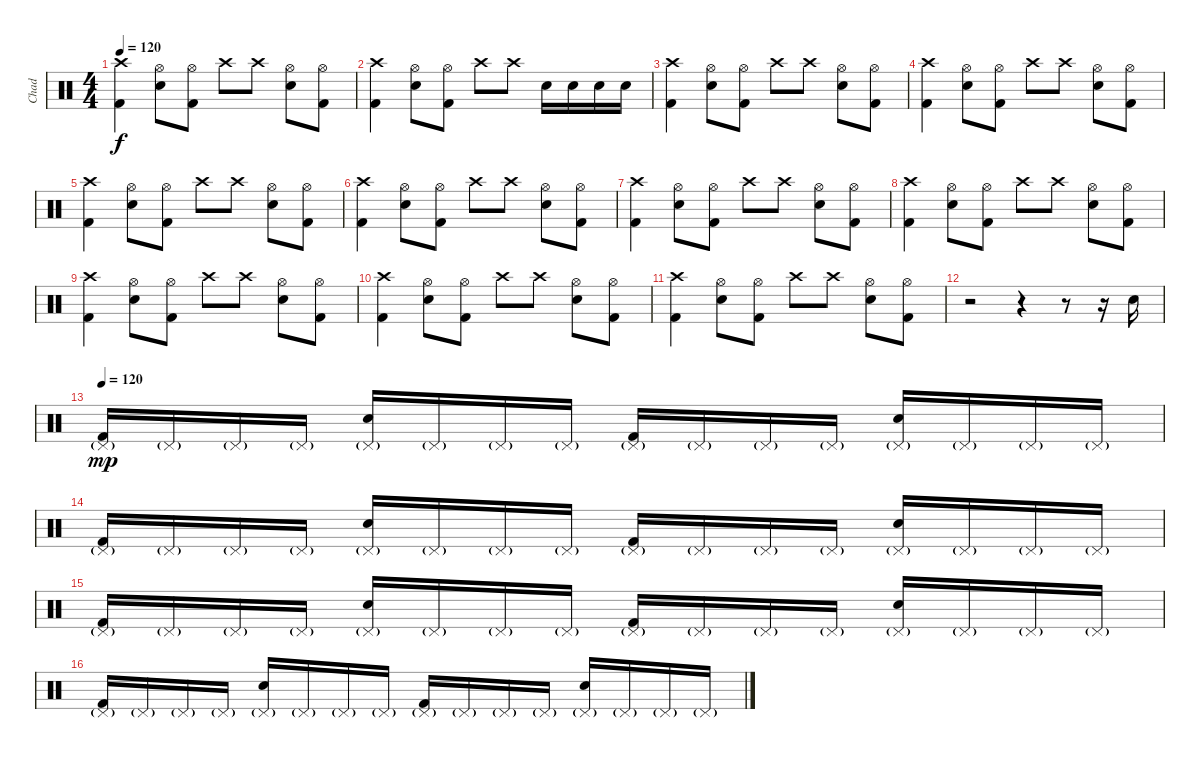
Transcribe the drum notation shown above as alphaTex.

\track ("Chad" "Chad") {instrument percussion}
\staff {score}
\articulation defaults
\ts (4 4)
\tempo 120
\clef neutral
\ks c
("Kick (hit) 2" "Crash high (hit)").4{dy f} ("Electric Snare (hit)" "Hi-Hat (open)").8 ("Kick (hit) 2" "Hi-Hat (open)").8 "Crash high (hit)".8 "Crash high (hit)".8 ("Electric Snare (hit)" "Hi-Hat (open)").8 ("Kick (hit) 2" "Hi-Hat (open)").8 |
("Kick (hit) 2" "Crash high (hit)").4 ("Electric Snare (hit)" "Hi-Hat (open)").8 ("Kick (hit) 2" "Hi-Hat (open)").8 "Crash high (hit)".8 "Crash high (hit)".8 "Electric Snare (hit)".16 "Electric Snare (hit)".16 "Electric Snare (hit)".16 "Electric Snare (hit)".16 |
("Kick (hit) 2" "Crash high (hit)").4 ("Electric Snare (hit)" "Hi-Hat (open)").8 ("Kick (hit) 2" "Hi-Hat (open)").8 "Crash high (hit)".8 "Crash high (hit)".8 ("Electric Snare (hit)" "Hi-Hat (open)").8 ("Kick (hit) 2" "Hi-Hat (open)").8 |
("Kick (hit) 2" "Crash high (hit)").4 ("Electric Snare (hit)" "Hi-Hat (open)").8 ("Kick (hit) 2" "Hi-Hat (open)").8 "Crash high (hit)".8 "Crash high (hit)".8 ("Electric Snare (hit)" "Hi-Hat (open)").8 ("Kick (hit) 2" "Hi-Hat (open)").8 |
("Kick (hit) 2" "Crash high (hit)").4 ("Electric Snare (hit)" "Hi-Hat (open)").8 ("Kick (hit) 2" "Hi-Hat (open)").8 "Crash high (hit)".8 "Crash high (hit)".8 ("Electric Snare (hit)" "Hi-Hat (open)").8 ("Kick (hit) 2" "Hi-Hat (open)").8 |
("Kick (hit) 2" "Crash high (hit)").4 ("Electric Snare (hit)" "Hi-Hat (open)").8 ("Kick (hit) 2" "Hi-Hat (open)").8 "Crash high (hit)".8 "Crash high (hit)".8 ("Electric Snare (hit)" "Hi-Hat (open)").8 ("Kick (hit) 2" "Hi-Hat (open)").8 |
("Kick (hit) 2" "Crash high (hit)").4 ("Electric Snare (hit)" "Hi-Hat (open)").8 ("Kick (hit) 2" "Hi-Hat (open)").8 "Crash high (hit)".8 "Crash high (hit)".8 ("Electric Snare (hit)" "Hi-Hat (open)").8 ("Kick (hit) 2" "Hi-Hat (open)").8 |
("Kick (hit) 2" "Crash high (hit)").4 ("Electric Snare (hit)" "Hi-Hat (open)").8 ("Kick (hit) 2" "Hi-Hat (open)").8 "Crash high (hit)".8 "Crash high (hit)".8 ("Electric Snare (hit)" "Hi-Hat (open)").8 ("Kick (hit) 2" "Hi-Hat (open)").8 |
("Kick (hit) 2" "Crash high (hit)").4 ("Electric Snare (hit)" "Hi-Hat (open)").8 ("Kick (hit) 2" "Hi-Hat (open)").8 "Crash high (hit)".8 "Crash high (hit)".8 ("Electric Snare (hit)" "Hi-Hat (open)").8 ("Kick (hit) 2" "Hi-Hat (open)").8 |
("Kick (hit) 2" "Crash high (hit)").4 ("Electric Snare (hit)" "Hi-Hat (open)").8 ("Kick (hit) 2" "Hi-Hat (open)").8 "Crash high (hit)".8 "Crash high (hit)".8 ("Electric Snare (hit)" "Hi-Hat (open)").8 ("Kick (hit) 2" "Hi-Hat (open)").8 |
("Kick (hit) 2" "Crash high (hit)").4 ("Electric Snare (hit)" "Hi-Hat (open)").8 ("Kick (hit) 2" "Hi-Hat (open)").8 "Crash high (hit)".8 "Crash high (hit)".8 ("Electric Snare (hit)" "Hi-Hat (open)").8 ("Kick (hit) 2" "Hi-Hat (open)").8 |
r.2 r.4 r.8 r.16 "Electric Snare (hit)".16 |
\tempo 120
("Kick (hit) 2" "Pedal Hi-Hat (hit)"{g}).16{dy mp} "Pedal Hi-Hat (hit)"{g}.16 "Pedal Hi-Hat (hit)"{g}.16 "Pedal Hi-Hat (hit)"{g}.16 ("Electric Snare (hit)" "Pedal Hi-Hat (hit)"{g}).16 "Pedal Hi-Hat (hit)"{g}.16 "Pedal Hi-Hat (hit)"{g}.16 "Pedal Hi-Hat (hit)"{g}.16 ("Kick (hit) 2" "Pedal Hi-Hat (hit)"{g}).16 "Pedal Hi-Hat (hit)"{g}.16 "Pedal Hi-Hat (hit)"{g}.16 "Pedal Hi-Hat (hit)"{g}.16 ("Electric Snare (hit)" "Pedal Hi-Hat (hit)"{g}).16 "Pedal Hi-Hat (hit)"{g}.16 "Pedal Hi-Hat (hit)"{g}.16 "Pedal Hi-Hat (hit)"{g}.16 |
("Kick (hit) 2" "Pedal Hi-Hat (hit)"{g}).16 "Pedal Hi-Hat (hit)"{g}.16 "Pedal Hi-Hat (hit)"{g}.16 "Pedal Hi-Hat (hit)"{g}.16 ("Electric Snare (hit)" "Pedal Hi-Hat (hit)"{g}).16 "Pedal Hi-Hat (hit)"{g}.16 "Pedal Hi-Hat (hit)"{g}.16 "Pedal Hi-Hat (hit)"{g}.16 ("Kick (hit) 2" "Pedal Hi-Hat (hit)"{g}).16 "Pedal Hi-Hat (hit)"{g}.16 "Pedal Hi-Hat (hit)"{g}.16 "Pedal Hi-Hat (hit)"{g}.16 ("Electric Snare (hit)" "Pedal Hi-Hat (hit)"{g}).16 "Pedal Hi-Hat (hit)"{g}.16 "Pedal Hi-Hat (hit)"{g}.16 "Pedal Hi-Hat (hit)"{g}.16 |
("Kick (hit) 2" "Pedal Hi-Hat (hit)"{g}).16 "Pedal Hi-Hat (hit)"{g}.16 "Pedal Hi-Hat (hit)"{g}.16 "Pedal Hi-Hat (hit)"{g}.16 ("Electric Snare (hit)" "Pedal Hi-Hat (hit)"{g}).16 "Pedal Hi-Hat (hit)"{g}.16 "Pedal Hi-Hat (hit)"{g}.16 "Pedal Hi-Hat (hit)"{g}.16 ("Kick (hit) 2" "Pedal Hi-Hat (hit)"{g}).16 "Pedal Hi-Hat (hit)"{g}.16 "Pedal Hi-Hat (hit)"{g}.16 "Pedal Hi-Hat (hit)"{g}.16 ("Electric Snare (hit)" "Pedal Hi-Hat (hit)"{g}).16 "Pedal Hi-Hat (hit)"{g}.16 "Pedal Hi-Hat (hit)"{g}.16 "Pedal Hi-Hat (hit)"{g}.16 |
("Kick (hit) 2" "Pedal Hi-Hat (hit)"{g}).16 "Pedal Hi-Hat (hit)"{g}.16 "Pedal Hi-Hat (hit)"{g}.16 "Pedal Hi-Hat (hit)"{g}.16 ("Electric Snare (hit)" "Pedal Hi-Hat (hit)"{g}).16 "Pedal Hi-Hat (hit)"{g}.16 "Pedal Hi-Hat (hit)"{g}.16 "Pedal Hi-Hat (hit)"{g}.16 ("Kick (hit) 2" "Pedal Hi-Hat (hit)"{g}).16 "Pedal Hi-Hat (hit)"{g}.16 "Pedal Hi-Hat (hit)"{g}.16 "Pedal Hi-Hat (hit)"{g}.16 ("Electric Snare (hit)" "Pedal Hi-Hat (hit)"{g}).16 "Pedal Hi-Hat (hit)"{g}.16 "Pedal Hi-Hat (hit)"{g}.16 "Pedal Hi-Hat (hit)"{g}.16
